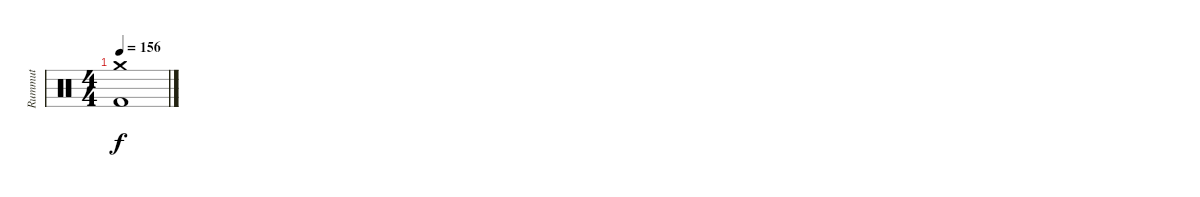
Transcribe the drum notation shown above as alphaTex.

\track ("Rummut" "Rummut") {instrument percussion}
\staff {score}
\articulation defaults
\ts (4 4)
\tempo 156
\clef neutral
\ks c
("Kick (hit) 2" "Crash medium (hit)").1{dy f}
